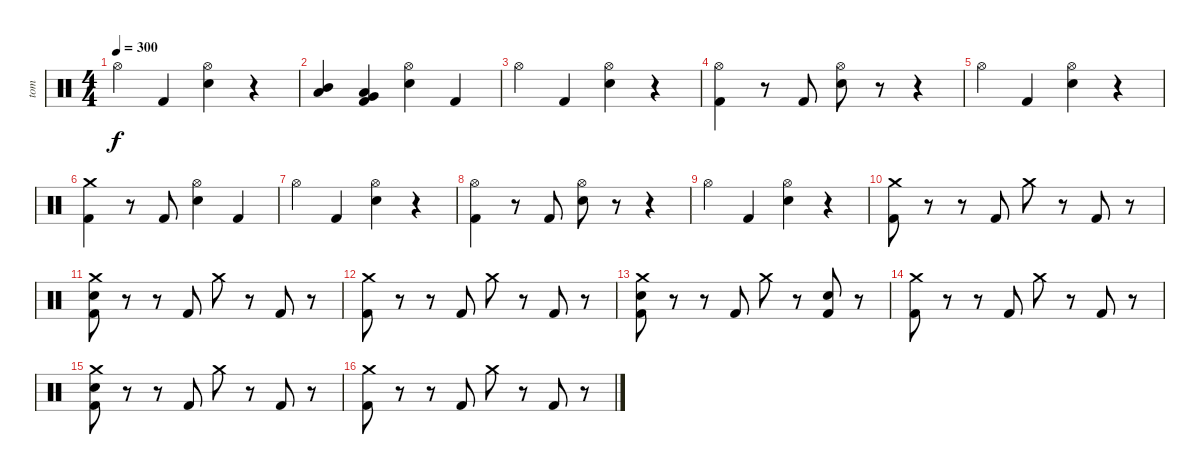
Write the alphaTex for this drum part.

\track ("tom" "tom") {instrument percussion}
\staff {score}
\articulation defaults
\ts (4 4)
\tempo 300
\clef neutral
\ks c "Hi-Hat (open)".4{dy f} "Kick (hit) 2".4
("Hi-Hat (open)" "Electric Snare (hit)").4 r.4 |
("Low Tom (hit)" "Mid Tom (hit)").4 ("Kick (hit) 2" "Low Tom (hit)" "Very Low Tom (hit)").4 ("Hi-Hat (open)" "Electric Snare (hit)").4 "Kick (hit) 2".4 |
"Hi-Hat (open)".4 "Kick (hit) 2".4 ("Hi-Hat (open)" "Electric Snare (hit)").4 r.4 |
("Hi-Hat (open)" "Kick (hit) 2").4 r.8 "Kick (hit) 2".8 ("Hi-Hat (open)" "Electric Snare (hit)").8 r.8 r.4 |
"Hi-Hat (open)".4 "Kick (hit) 2".4 ("Hi-Hat (open)" "Electric Snare (hit)").4 r.4 |
("Crash medium (hit)" "Kick (hit) 2").4 r.8 "Kick (hit) 2".8 ("Hi-Hat (open)" "Electric Snare (hit)").4 "Kick (hit) 2".4 |
"Hi-Hat (open)".4 "Kick (hit) 2".4 ("Hi-Hat (open)" "Electric Snare (hit)").4 r.4 |
("Hi-Hat (open)" "Kick (hit) 2").4 r.8 "Kick (hit) 2".8 ("Hi-Hat (open)" "Electric Snare (hit)").8 r.8 r.4 |
"Hi-Hat (open)".4 "Kick (hit) 2".4 ("Hi-Hat (open)" "Electric Snare (hit)").4 r.4 |
("Crash medium (hit)" "Kick (hit) 2").8 r.8 r.8 "Kick (hit) 2".8 "Crash medium (hit)".8 r.8 "Kick (hit) 2".8 r.8 |
("Electric Snare (hit)" "Crash medium (hit)" "Kick (hit) 2").8 r.8 r.8 "Kick (hit) 2".8 "Crash medium (hit)".8 r.8 "Kick (hit) 2".8 r.8 |
("Crash medium (hit)" "Kick (hit) 2").8 r.8 r.8 "Kick (hit) 2".8 "Crash medium (hit)".8 r.8 "Kick (hit) 2".8 r.8 |
("Electric Snare (hit)" "Crash medium (hit)" "Kick (hit) 2").8 r.8 r.8 "Kick (hit) 2".8 "Crash medium (hit)".8 r.8 ("Electric Snare (hit)" "Kick (hit) 2").8 r.8 |
("Crash medium (hit)" "Kick (hit) 2").8 r.8 r.8 "Kick (hit) 2".8 "Crash medium (hit)".8 r.8 "Kick (hit) 2".8 r.8 |
("Electric Snare (hit)" "Crash medium (hit)" "Kick (hit) 2").8 r.8 r.8 "Kick (hit) 2".8 "Crash medium (hit)".8 r.8 "Kick (hit) 2".8 r.8 |
("Crash medium (hit)" "Kick (hit) 2").8 r.8 r.8 "Kick (hit) 2".8 "Crash medium (hit)".8 r.8 "Kick (hit) 2".8 r.8
